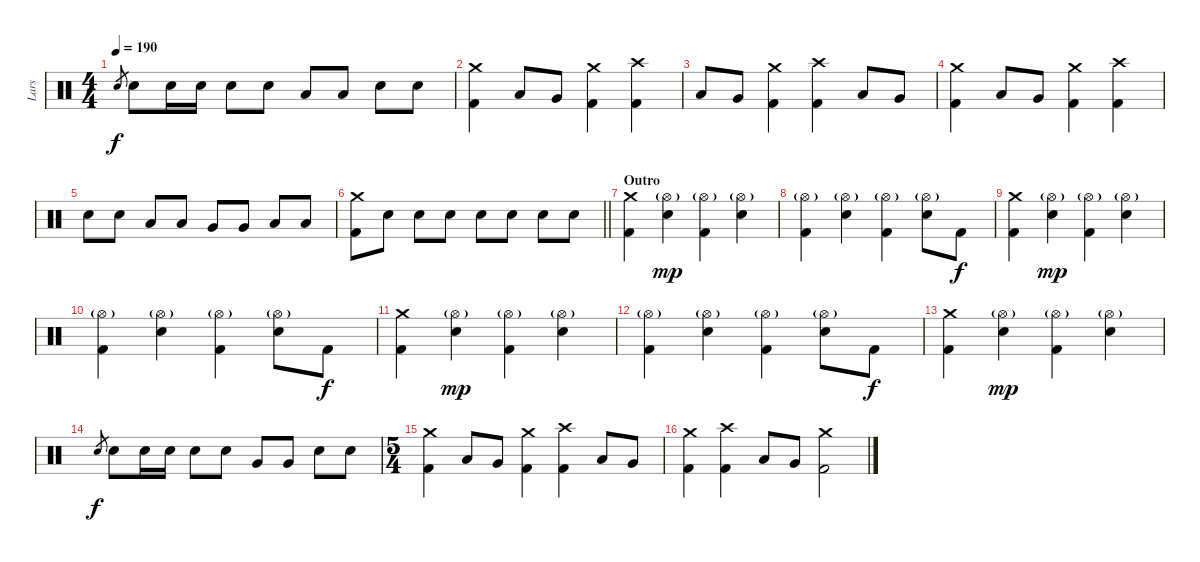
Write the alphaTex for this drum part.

\track ("Lars" "Lars") {instrument percussion}
\staff {score}
\articulation defaults
\ts (4 4)
\tempo 190
\clef neutral
\ks c "Electric Snare (hit)".8{gr dy f} "Electric Snare (hit)".8 "Electric Snare (hit)".16 "Electric Snare (hit)".16 "Electric Snare (hit)".8 "Electric Snare (hit)".8 "Low Floor Tom (hit)".8 "Low Floor Tom (hit)".8 "Electric Snare (hit)".8 "Electric Snare (hit)".8
|
("Crash medium (hit)" "Kick (hit) 2").4 "Low Tom (hit)".8 "Very Low Tom (hit)".8 ("Crash medium (hit)" "Kick (hit) 2").4 ("Crash high (hit)" "Kick (hit) 2").4 |
"Low Tom (hit)".8 "Very Low Tom (hit)".8 ("Crash medium (hit)" "Kick (hit) 2").4 ("Crash high (hit)" "Kick (hit) 2").4 "Low Tom (hit)".8 "Very Low Tom (hit)".8 |
("Crash medium (hit)" "Kick (hit) 2").4 "Low Tom (hit)".8 "Very Low Tom (hit)".8 ("Crash medium (hit)" "Kick (hit) 2").4 ("Crash high (hit)" "Kick (hit) 2").4 |
"Electric Snare (hit)".8 "Electric Snare (hit)".8 "Low Tom (hit)".8 "Low Tom (hit)".8 "Very Low Tom (hit)".8 "Very Low Tom (hit)".8 "Low Floor Tom (hit)".8 "Low Floor Tom (hit)".8 |
\barLineRight lightlight
("Crash medium (hit)" "Kick (hit) 2").8 "Electric Snare (hit)".8 "Electric Snare (hit)".8 "Electric Snare (hit)".8 "Electric Snare (hit)".8 "Electric Snare (hit)".8 "Electric Snare (hit)".8 "Electric Snare (hit)".8 |
\section ("" "Outro")
("Crash medium (hit)" "Kick (hit) 2").4 ("Hi-Hat (open)"{g} "Electric Snare (hit)").4{dy mp} ("Hi-Hat (open)"{g} "Kick (hit) 2").4 ("Hi-Hat (open)"{g} "Electric Snare (hit)").4 |
("Hi-Hat (open)"{g} "Kick (hit) 2").4 ("Hi-Hat (open)"{g} "Electric Snare (hit)").4 ("Hi-Hat (open)"{g} "Kick (hit) 2").4 ("Hi-Hat (open)"{g} "Electric Snare (hit)").8 "Kick (hit) 2".8{dy f} |
("Crash medium (hit)" "Kick (hit) 2").4 ("Hi-Hat (open)"{g} "Electric Snare (hit)").4{dy mp} ("Hi-Hat (open)"{g} "Kick (hit) 2").4 ("Hi-Hat (open)"{g} "Electric Snare (hit)").4 |
("Hi-Hat (open)"{g} "Kick (hit) 2").4 ("Hi-Hat (open)"{g} "Electric Snare (hit)").4 ("Hi-Hat (open)"{g} "Kick (hit) 2").4 ("Hi-Hat (open)"{g} "Electric Snare (hit)").8 "Kick (hit) 2".8{dy f} |
("Crash medium (hit)" "Kick (hit) 2").4 ("Hi-Hat (open)"{g} "Electric Snare (hit)").4{dy mp} ("Hi-Hat (open)"{g} "Kick (hit) 2").4 ("Hi-Hat (open)"{g} "Electric Snare (hit)").4 |
("Hi-Hat (open)"{g} "Kick (hit) 2").4 ("Hi-Hat (open)"{g} "Electric Snare (hit)").4 ("Hi-Hat (open)"{g} "Kick (hit) 2").4 ("Hi-Hat (open)"{g} "Electric Snare (hit)").8 "Kick (hit) 2".8{dy f} |
("Crash medium (hit)" "Kick (hit) 2").4 ("Hi-Hat (open)"{g} "Electric Snare (hit)").4{dy mp} ("Hi-Hat (open)"{g} "Kick (hit) 2").4 ("Hi-Hat (open)"{g} "Electric Snare (hit)").4 |
"Electric Snare (hit)".8{gr dy f} "Electric Snare (hit)".8 "Electric Snare (hit)".16 "Electric Snare (hit)".16 "Electric Snare (hit)".8 "Electric Snare (hit)".8 "Very Low Tom (hit)".8 "Very Low Tom (hit)".8 "Electric Snare (hit)".8 "Electric Snare (hit)".8 |
\ts (5 4)
("Crash medium (hit)" "Kick (hit) 2").4 "Low Tom (hit)".8 "Very Low Tom (hit)".8 ("Crash medium (hit)" "Kick (hit) 2").4 ("Crash high (hit)" "Kick (hit) 2").4 "Low Tom (hit)".8 "Very Low Tom (hit)".8 |
("Crash medium (hit)" "Kick (hit) 2").4 ("Crash high (hit)" "Kick (hit) 2").4 "Low Tom (hit)".8 "Very Low Tom (hit)".8 ("Crash medium (hit)" "Kick (hit) 2").2
